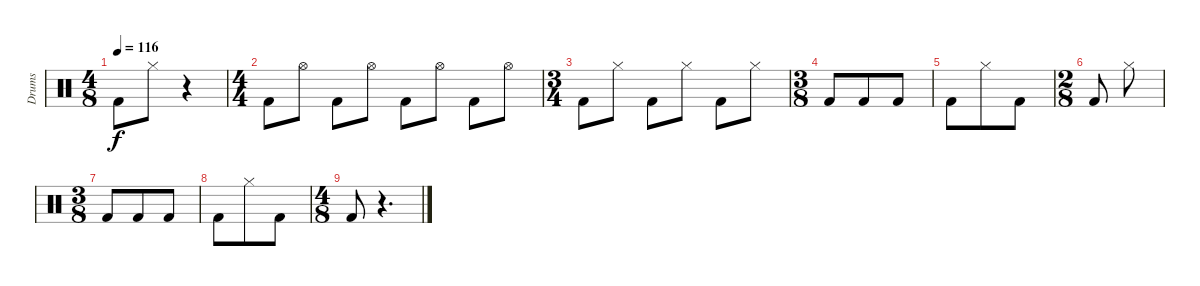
\track ("Drums" "Drums") {instrument percussion}
\staff {score}
\articulation defaults
\ts (4 8)
\tempo 116
\clef neutral
\ks c "Kick (hit) 2".8{dy f} "Hi-Hat (closed)".8
r.4 |
\ts (4 4)
"Kick (hit) 2".8 "Hi-Hat (open)".8 "Kick (hit) 2".8 "Hi-Hat (open)".8 "Kick (hit) 2".8 "Hi-Hat (open)".8 "Kick (hit) 2".8 "Hi-Hat (open)".8 |
\ts (3 4)
"Kick (hit) 2".8 "Hi-Hat (closed)".8 "Kick (hit) 2".8 "Hi-Hat (closed)".8 "Kick (hit) 2".8 "Hi-Hat (closed)".8 |
\ts (3 8)
"Kick (hit) 2".8 "Kick (hit) 2".8 "Kick (hit) 2".8 |
"Kick (hit) 2".8 "Hi-Hat (closed)".8 "Kick (hit) 2".8 |
\ts (2 8)
"Kick (hit) 2".8 "Hi-Hat (closed)".8 |
\ts (3 8)
"Kick (hit) 2".8 "Kick (hit) 2".8 "Kick (hit) 2".8 |
"Kick (hit) 2".8 "Hi-Hat (closed)".8 "Kick (hit) 2".8 |
\ts (4 8)
"Kick (hit) 2".8 r.4{d}
